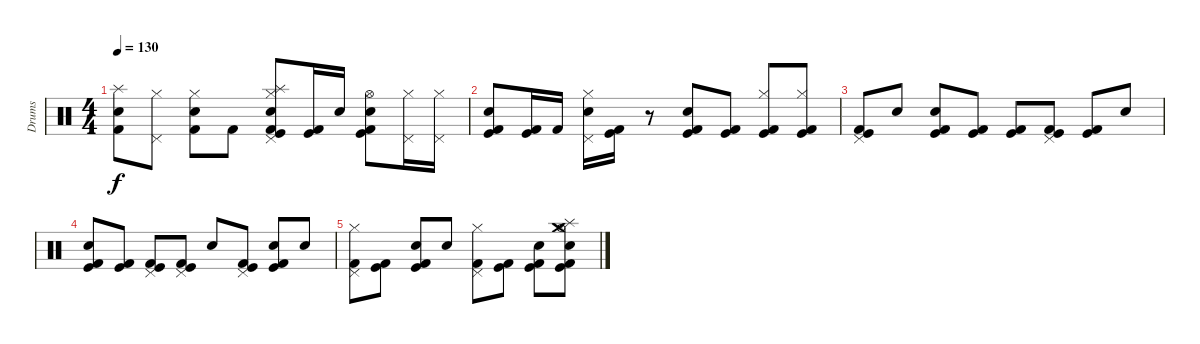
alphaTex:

\track ("Drums" "Drums") {instrument percussion}
\staff {score}
\articulation defaults
\ts (4 4)
\tempo 130
\clef neutral
\ks c
("Kick (hit) 2" "Snare (hit) 2" "Splash (hit)").8{dy f} ("Pedal Hi-Hat (hit)" "Hi-Hat (closed)").8 ("Kick (hit) 2" "Hi-Hat (closed)" "Snare (hit) 2").8 "Kick (hit) 2".8 ("Pedal Hi-Hat (hit)" "Hi-Hat (closed)" "Splash (hit)" "Kick (hit) 2" "Kick (hit)" "Snare (hit) 2").8 ("Kick (hit) 2" "Kick (hit)").16 "Snare (hit) 2".16 ("Kick (hit) 2" "Kick (hit)" "Hi-Hat (open)" "Snare (hit) 2").8 ("Pedal Hi-Hat (hit)" "Hi-Hat (closed)").16 ("Pedal Hi-Hat (hit)" "Hi-Hat (closed)").16 |
("Kick (hit)" "Kick (hit) 2" "Snare (hit) 2").8 ("Kick (hit)" "Kick (hit) 2").16 "Kick (hit) 2".16 ("Snare (hit) 2" "Pedal Hi-Hat (hit)" "Hi-Hat (closed)").16 ("Kick (hit) 2" "Kick (hit)").16 r.8 ("Kick (hit) 2" "Kick (hit)" "Snare (hit) 2").8 ("Kick (hit) 2" "Kick (hit)").8 ("Kick (hit)" "Kick (hit) 2" "Hi-Hat (closed)").8 ("Kick (hit) 2" "Kick (hit)" "Hi-Hat (closed)").8 |
("Kick (hit) 2" "Kick (hit)" "Pedal Hi-Hat (hit)").8 "Snare (hit) 2".8 ("Kick (hit) 2" "Snare (hit) 2" "Kick (hit)").8 ("Kick (hit) 2" "Kick (hit)").8 ("Kick (hit) 2" "Kick (hit)").8 ("Kick (hit) 2" "Pedal Hi-Hat (hit)" "Kick (hit)").8 ("Kick (hit) 2" "Kick (hit)").8 "Snare (hit) 2".8 |
("Kick (hit) 2" "Kick (hit)" "Snare (hit) 2").8 ("Kick (hit) 2" "Kick (hit)").8 ("Kick (hit) 2" "Pedal Hi-Hat (hit)" "Kick (hit)").8 ("Pedal Hi-Hat (hit)" "Kick (hit)" "Kick (hit) 2").8 "Snare (hit) 2".8 ("Kick (hit) 2" "Pedal Hi-Hat (hit)" "Kick (hit)").8 ("Kick (hit) 2" "Kick (hit)" "Snare (hit) 2").8 "Snare (hit) 2".8 |
("Kick (hit) 2" "Pedal Hi-Hat (hit)" "Hi-Hat (closed)").8 ("Kick (hit) 2" "Kick (hit)").8 ("Kick (hit) 2" "Kick (hit)" "Snare (hit) 2").8 "Snare (hit) 2".8 ("Kick (hit) 2" "Pedal Hi-Hat (hit)" "Hi-Hat (closed)").8 ("Kick (hit) 2" "Kick (hit)").8 ("Kick (hit) 2" "Kick (hit)" "Snare (hit) 2").8 ("Kick (hit) 2" "Kick (hit)" "Snare (hit) 2" "Hi-Hat (open)" "Crash medium (hit)" "Splash (hit)").8
